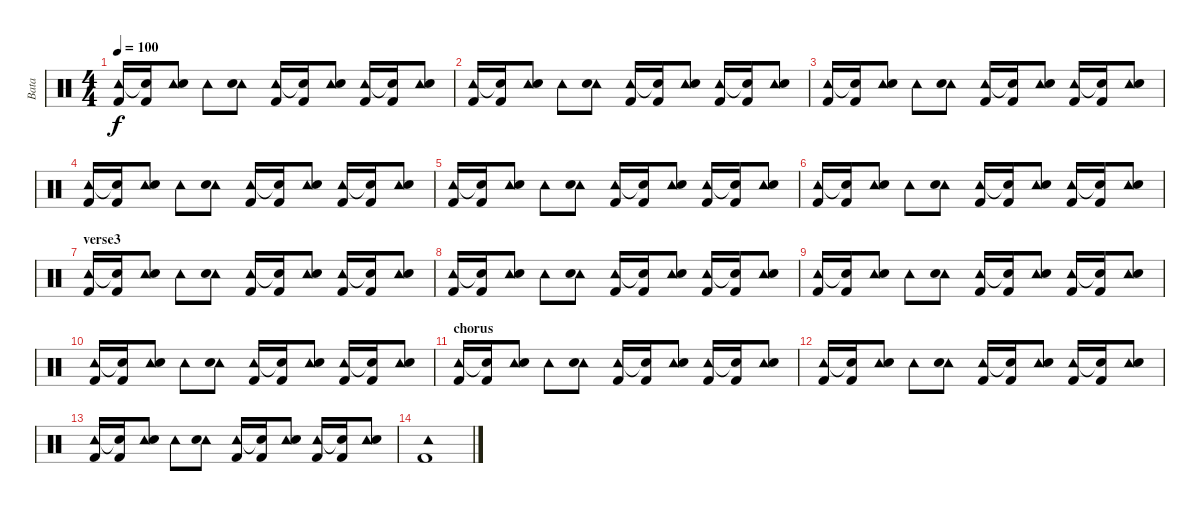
\track ("Bata" "Bata") {instrument percussion}
\staff {score}
\articulation defaults
\ts (4 4)
\tempo 100
\clef neutral
\ks c
("Tambourine (hit)" "Kick (hit) 2").16{dy f} ("Snare (hit)"{t} "Kick (hit) 2").16 ("Tambourine (hit)" "Snare (hit) 2").8 "Tambourine (hit)".8 ("Tambourine (hit)" "Snare (hit) 2").8 ("Tambourine (hit)" "Kick (hit) 2").16 ("Snare (hit)"{t} "Kick (hit) 2").16 ("Tambourine (hit)" "Snare (hit) 2").8 ("Tambourine (hit)" "Kick (hit) 2").16 ("Snare (hit)"{t} "Kick (hit) 2").16 ("Tambourine (hit)" "Snare (hit) 2").8 |
("Tambourine (hit)" "Kick (hit) 2").16 ("Snare (hit)"{t} "Kick (hit) 2").16 ("Tambourine (hit)" "Snare (hit) 2").8 "Tambourine (hit)".8 ("Tambourine (hit)" "Snare (hit) 2").8 ("Tambourine (hit)" "Kick (hit) 2").16 ("Snare (hit)"{t} "Kick (hit) 2").16 ("Tambourine (hit)" "Snare (hit) 2").8 ("Tambourine (hit)" "Kick (hit) 2").16 ("Snare (hit)"{t} "Kick (hit) 2").16 ("Tambourine (hit)" "Snare (hit) 2").8 |
("Tambourine (hit)" "Kick (hit) 2").16 ("Snare (hit)"{t} "Kick (hit) 2").16 ("Tambourine (hit)" "Snare (hit) 2").8 "Tambourine (hit)".8 ("Tambourine (hit)" "Snare (hit) 2").8 ("Tambourine (hit)" "Kick (hit) 2").16 ("Snare (hit)"{t} "Kick (hit) 2").16 ("Tambourine (hit)" "Snare (hit) 2").8 ("Tambourine (hit)" "Kick (hit) 2").16 ("Snare (hit)"{t} "Kick (hit) 2").16 ("Tambourine (hit)" "Snare (hit) 2").8 |
("Tambourine (hit)" "Kick (hit) 2").16 ("Snare (hit)"{t} "Kick (hit) 2").16 ("Tambourine (hit)" "Snare (hit) 2").8 "Tambourine (hit)".8 ("Tambourine (hit)" "Snare (hit) 2").8 ("Tambourine (hit)" "Kick (hit) 2").16 ("Snare (hit)"{t} "Kick (hit) 2").16 ("Tambourine (hit)" "Snare (hit) 2").8 ("Tambourine (hit)" "Kick (hit) 2").16 ("Snare (hit)"{t} "Kick (hit) 2").16 ("Tambourine (hit)" "Snare (hit) 2").8 |
("Tambourine (hit)" "Kick (hit) 2").16 ("Snare (hit)"{t} "Kick (hit) 2").16 ("Tambourine (hit)" "Snare (hit) 2").8 "Tambourine (hit)".8 ("Tambourine (hit)" "Snare (hit) 2").8 ("Tambourine (hit)" "Kick (hit) 2").16 ("Snare (hit)"{t} "Kick (hit) 2").16 ("Tambourine (hit)" "Snare (hit) 2").8 ("Tambourine (hit)" "Kick (hit) 2").16 ("Snare (hit)"{t} "Kick (hit) 2").16 ("Tambourine (hit)" "Snare (hit) 2").8 |
("Tambourine (hit)" "Kick (hit) 2").16 ("Snare (hit)"{t} "Kick (hit) 2").16 ("Tambourine (hit)" "Snare (hit) 2").8 "Tambourine (hit)".8 ("Tambourine (hit)" "Snare (hit) 2").8 ("Tambourine (hit)" "Kick (hit) 2").16 ("Snare (hit)"{t} "Kick (hit) 2").16 ("Tambourine (hit)" "Snare (hit) 2").8 ("Tambourine (hit)" "Kick (hit) 2").16 ("Snare (hit)"{t} "Kick (hit) 2").16 ("Tambourine (hit)" "Snare (hit) 2").8 |
\section ("" "verse3")
("Tambourine (hit)" "Kick (hit) 2").16 ("Snare (hit)"{t} "Kick (hit) 2").16 ("Tambourine (hit)" "Snare (hit) 2").8 "Tambourine (hit)".8 ("Tambourine (hit)" "Snare (hit) 2").8 ("Tambourine (hit)" "Kick (hit) 2").16 ("Snare (hit)"{t} "Kick (hit) 2").16 ("Tambourine (hit)" "Snare (hit) 2").8 ("Tambourine (hit)" "Kick (hit) 2").16 ("Snare (hit)"{t} "Kick (hit) 2").16 ("Tambourine (hit)" "Snare (hit) 2").8 |
("Tambourine (hit)" "Kick (hit) 2").16 ("Snare (hit)"{t} "Kick (hit) 2").16 ("Tambourine (hit)" "Snare (hit) 2").8 "Tambourine (hit)".8 ("Tambourine (hit)" "Snare (hit) 2").8 ("Tambourine (hit)" "Kick (hit) 2").16 ("Snare (hit)"{t} "Kick (hit) 2").16 ("Tambourine (hit)" "Snare (hit) 2").8 ("Tambourine (hit)" "Kick (hit) 2").16 ("Snare (hit)"{t} "Kick (hit) 2").16 ("Tambourine (hit)" "Snare (hit) 2").8 |
("Tambourine (hit)" "Kick (hit) 2").16 ("Snare (hit)"{t} "Kick (hit) 2").16 ("Tambourine (hit)" "Snare (hit) 2").8 "Tambourine (hit)".8 ("Tambourine (hit)" "Snare (hit) 2").8 ("Tambourine (hit)" "Kick (hit) 2").16 ("Snare (hit)"{t} "Kick (hit) 2").16 ("Tambourine (hit)" "Snare (hit) 2").8 ("Tambourine (hit)" "Kick (hit) 2").16 ("Snare (hit)"{t} "Kick (hit) 2").16 ("Tambourine (hit)" "Snare (hit) 2").8 |
("Tambourine (hit)" "Kick (hit) 2").16 ("Snare (hit)"{t} "Kick (hit) 2").16 ("Tambourine (hit)" "Snare (hit) 2").8 "Tambourine (hit)".8 ("Tambourine (hit)" "Snare (hit) 2").8 ("Tambourine (hit)" "Kick (hit) 2").16 ("Snare (hit)"{t} "Kick (hit) 2").16 ("Tambourine (hit)" "Snare (hit) 2").8 ("Tambourine (hit)" "Kick (hit) 2").16 ("Snare (hit)"{t} "Kick (hit) 2").16 ("Tambourine (hit)" "Snare (hit) 2").8 |
\section ("" "chorus")
("Tambourine (hit)" "Kick (hit) 2").16 ("Snare (hit)"{t} "Kick (hit) 2").16 ("Tambourine (hit)" "Snare (hit) 2").8 "Tambourine (hit)".8 ("Tambourine (hit)" "Snare (hit) 2").8 ("Tambourine (hit)" "Kick (hit) 2").16 ("Snare (hit)"{t} "Kick (hit) 2").16 ("Tambourine (hit)" "Snare (hit) 2").8 ("Tambourine (hit)" "Kick (hit) 2").16 ("Snare (hit)"{t} "Kick (hit) 2").16 ("Tambourine (hit)" "Snare (hit) 2").8 |
("Tambourine (hit)" "Kick (hit) 2").16 ("Snare (hit)"{t} "Kick (hit) 2").16 ("Tambourine (hit)" "Snare (hit) 2").8 "Tambourine (hit)".8 ("Tambourine (hit)" "Snare (hit) 2").8 ("Tambourine (hit)" "Kick (hit) 2").16 ("Snare (hit)"{t} "Kick (hit) 2").16 ("Tambourine (hit)" "Snare (hit) 2").8 ("Tambourine (hit)" "Kick (hit) 2").16 ("Snare (hit)"{t} "Kick (hit) 2").16 ("Tambourine (hit)" "Snare (hit) 2").8 |
("Tambourine (hit)" "Kick (hit) 2").16 ("Snare (hit)"{t} "Kick (hit) 2").16 ("Tambourine (hit)" "Snare (hit) 2").8 "Tambourine (hit)".8 ("Tambourine (hit)" "Snare (hit) 2").8 ("Tambourine (hit)" "Kick (hit) 2").16 ("Snare (hit)"{t} "Kick (hit) 2").16 ("Tambourine (hit)" "Snare (hit) 2").8 ("Tambourine (hit)" "Kick (hit) 2").16 ("Snare (hit)"{t} "Kick (hit) 2").16 ("Tambourine (hit)" "Snare (hit) 2").8 |
("Tambourine (hit)" "Kick (hit) 2").1
